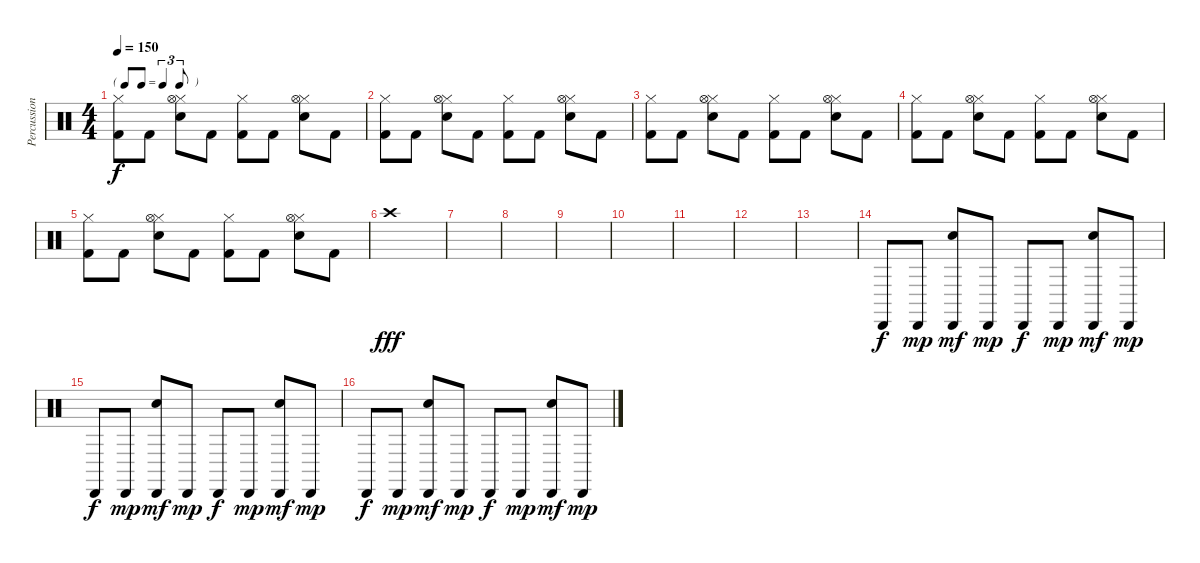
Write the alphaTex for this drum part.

\track ("Percussion" "Percussion") {instrument percussion}
\staff {score}
\articulation defaults
\ts (4 4)
\tf triplet8th
\tempo 150
\clef neutral
\ks c
("Hi-Hat (closed)" "Kick (hit) 2").8{dy f} "Kick (hit) 2".8 ("Hi-Hat (closed)" "Electric Snare (hit)" "Hi-Hat (open)").8 "Kick (hit) 2".8 ("Hi-Hat (closed)" "Kick (hit) 2").8 "Kick (hit) 2".8 ("Hi-Hat (closed)" "Electric Snare (hit)" "Hi-Hat (open)").8 "Kick (hit) 2".8 |
("Hi-Hat (closed)" "Kick (hit) 2").8 "Kick (hit) 2".8 ("Hi-Hat (closed)" "Electric Snare (hit)" "Hi-Hat (open)").8 "Kick (hit) 2".8 ("Hi-Hat (closed)" "Kick (hit) 2").8 "Kick (hit) 2".8 ("Hi-Hat (closed)" "Electric Snare (hit)" "Hi-Hat (open)").8 "Kick (hit) 2".8 |
("Hi-Hat (closed)" "Kick (hit) 2").8 "Kick (hit) 2".8 ("Hi-Hat (closed)" "Electric Snare (hit)" "Hi-Hat (open)").8 "Kick (hit) 2".8 ("Hi-Hat (closed)" "Kick (hit) 2").8 "Kick (hit) 2".8 ("Hi-Hat (closed)" "Electric Snare (hit)" "Hi-Hat (open)").8 "Kick (hit) 2".8 |
("Hi-Hat (closed)" "Kick (hit) 2").8 "Kick (hit) 2".8 ("Hi-Hat (closed)" "Electric Snare (hit)" "Hi-Hat (open)").8 "Kick (hit) 2".8 ("Hi-Hat (closed)" "Kick (hit) 2").8 "Kick (hit) 2".8 ("Hi-Hat (closed)" "Electric Snare (hit)" "Hi-Hat (open)").8 "Kick (hit) 2".8 |
("Hi-Hat (closed)" "Kick (hit) 2").8 "Kick (hit) 2".8 ("Hi-Hat (closed)" "Electric Snare (hit)" "Hi-Hat (open)").8 "Kick (hit) 2".8 ("Hi-Hat (closed)" "Kick (hit) 2").8 "Kick (hit) 2".8 ("Hi-Hat (closed)" "Electric Snare (hit)" "Hi-Hat (open)").8 "Kick (hit) 2".8 |
"Crash high (hit)".1{dy fff} |
|
|
|
|
|
|
|
"Cabasa (hit)".8{dy f} "Cabasa (hit)".8{dy mp} ("Cabasa (hit)" "Hand Clap (hit)").8{dy mf} "Cabasa (hit)".8{dy mp} "Cabasa (hit)".8{dy f} "Cabasa (hit)".8{dy mp} ("Cabasa (hit)" "Hand Clap (hit)").8{dy mf} "Cabasa (hit)".8{dy mp} |
"Cabasa (hit)".8{dy f} "Cabasa (hit)".8{dy mp} ("Cabasa (hit)" "Hand Clap (hit)").8{dy mf} "Cabasa (hit)".8{dy mp} "Cabasa (hit)".8{dy f} "Cabasa (hit)".8{dy mp} ("Cabasa (hit)" "Hand Clap (hit)").8{dy mf} "Cabasa (hit)".8{dy mp} |
"Cabasa (hit)".8{dy f} "Cabasa (hit)".8{dy mp} ("Cabasa (hit)" "Hand Clap (hit)").8{dy mf} "Cabasa (hit)".8{dy mp} "Cabasa (hit)".8{dy f} "Cabasa (hit)".8{dy mp} ("Cabasa (hit)" "Hand Clap (hit)").8{dy mf} "Cabasa (hit)".8{dy mp}
